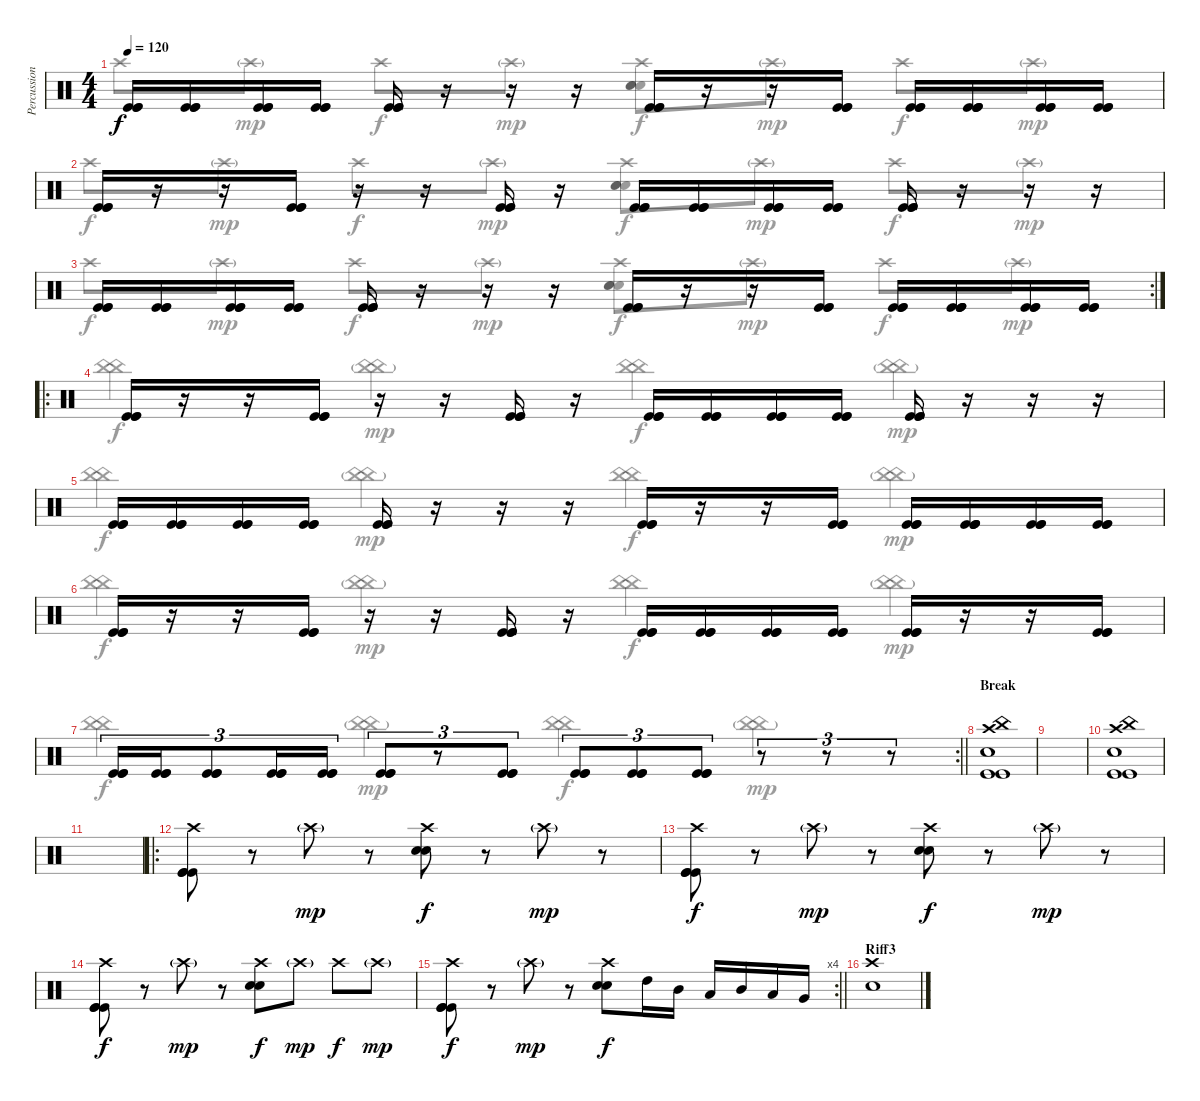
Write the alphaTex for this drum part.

\track ("Percussion" "Percussion") {instrument percussion}
\staff {score}
\articulation defaults
\voice
\ts (4 4)
\tempo 120
\clef neutral
\ks c
("Kick (hit)" "Kick (hit)" "Kick (hit)").16{dy f} ("Kick (hit)" "Kick (hit)" "Kick (hit)").16 ("Kick (hit)" "Kick (hit)" "Kick (hit)").16 ("Kick (hit)" "Kick (hit)" "Kick (hit)").16 ("Kick (hit)" "Kick (hit)" "Kick (hit)").16 r.16 r.16 r.16 ("Kick (hit)" "Kick (hit)" "Kick (hit)").16 r.16 r.16 ("Kick (hit)" "Kick (hit)" "Kick (hit)").16 ("Kick (hit)" "Kick (hit)" "Kick (hit)").16 ("Kick (hit)" "Kick (hit)" "Kick (hit)" "Kick (hit)").16 ("Kick (hit)" "Kick (hit)" "Kick (hit)").16 ("Kick (hit)" "Kick (hit)" "Kick (hit)").16 |
("Kick (hit)" "Kick (hit)" "Kick (hit)").16 r.16 r.16 ("Kick (hit)" "Kick (hit)" "Kick (hit)").16 r.16 r.16 ("Kick (hit)" "Kick (hit)" "Kick (hit)").16 r.16 ("Kick (hit)" "Kick (hit)" "Kick (hit)").16 ("Kick (hit)" "Kick (hit)" "Kick (hit)").16 ("Kick (hit)" "Kick (hit)" "Kick (hit)").16 ("Kick (hit)" "Kick (hit)" "Kick (hit)").16 ("Kick (hit)" "Kick (hit)" "Kick (hit)").16 r.16 r.16 r.16 |
\rc 2
("Kick (hit)" "Kick (hit)" "Kick (hit)").16 ("Kick (hit)" "Kick (hit)" "Kick (hit)").16 ("Kick (hit)" "Kick (hit)" "Kick (hit)").16 ("Kick (hit)" "Kick (hit)" "Kick (hit)").16 ("Kick (hit)" "Kick (hit)" "Kick (hit)").16 r.16 r.16 r.16 ("Kick (hit)" "Kick (hit)" "Kick (hit)").16 r.16 r.16 ("Kick (hit)" "Kick (hit)" "Kick (hit)").16 ("Kick (hit)" "Kick (hit)" "Kick (hit)").16 ("Kick (hit)" "Kick (hit)" "Kick (hit)" "Kick (hit)").16 ("Kick (hit)" "Kick (hit)" "Kick (hit)").16 ("Kick (hit)" "Kick (hit)" "Kick (hit)").16 |
\ro
("Kick (hit)" "Kick (hit)" "Kick (hit)").16 r.16 r.16 ("Kick (hit)" "Kick (hit)" "Kick (hit)").16 r.16 r.16 ("Kick (hit)" "Kick (hit)" "Kick (hit)").16 r.16 ("Kick (hit)" "Kick (hit)" "Kick (hit)").16 ("Kick (hit)" "Kick (hit)" "Kick (hit)").16 ("Kick (hit)" "Kick (hit)" "Kick (hit)").16 ("Kick (hit)" "Kick (hit)" "Kick (hit)").16 ("Kick (hit)" "Kick (hit)" "Kick (hit)").16 r.16 r.16 r.16 |
("Kick (hit)" "Kick (hit)" "Kick (hit)").16 ("Kick (hit)" "Kick (hit)" "Kick (hit)").16 ("Kick (hit)" "Kick (hit)" "Kick (hit)").16 ("Kick (hit)" "Kick (hit)" "Kick (hit)").16 ("Kick (hit)" "Kick (hit)" "Kick (hit)").16 r.16 r.16 r.16 ("Kick (hit)" "Kick (hit)" "Kick (hit)").16 r.16 r.16 ("Kick (hit)" "Kick (hit)" "Kick (hit)").16 ("Kick (hit)" "Kick (hit)" "Kick (hit)").16 ("Kick (hit)" "Kick (hit)" "Kick (hit)" "Kick (hit)").16 ("Kick (hit)" "Kick (hit)" "Kick (hit)").16 ("Kick (hit)" "Kick (hit)" "Kick (hit)").16 |
("Kick (hit)" "Kick (hit)" "Kick (hit)").16 r.16 r.16 ("Kick (hit)" "Kick (hit)" "Kick (hit)").16 r.16 r.16 ("Kick (hit)" "Kick (hit)" "Kick (hit)").16 r.16 ("Kick (hit)" "Kick (hit)" "Kick (hit)").16 ("Kick (hit)" "Kick (hit)" "Kick (hit)").16 ("Kick (hit)" "Kick (hit)" "Kick (hit)").16 ("Kick (hit)" "Kick (hit)" "Kick (hit)").16 ("Kick (hit)" "Kick (hit)" "Kick (hit)").16 r.16 r.16 ("Kick (hit)" "Kick (hit)" "Kick (hit)").16 |
\rc 2
\barLineRight lightlight
("Kick (hit)" "Kick (hit)" "Kick (hit)").16{tu (3 2)} ("Kick (hit)" "Kick (hit)" "Kick (hit)").16{tu (3 2)} ("Kick (hit)" "Kick (hit)" "Kick (hit)").8{tu (3 2)} ("Kick (hit)" "Kick (hit)" "Kick (hit)").16{tu (3 2)} ("Kick (hit)" "Kick (hit)" "Kick (hit)").16{tu (3 2)} ("Kick (hit)" "Kick (hit)" "Kick (hit)").8{tu (3 2)} r.8{tu (3 2)} ("Kick (hit)" "Kick (hit)" "Kick (hit)").8{tu (3 2)} ("Kick (hit)" "Kick (hit)" "Kick (hit)").8{tu (3 2)} ("Kick (hit)" "Kick (hit)" "Kick (hit)").8{tu (3 2)} ("Kick (hit)" "Kick (hit)" "Kick (hit)").8{tu (3 2)} r.8{tu (3 2)} r.8{tu (3 2)} r.8{tu (3 2)} |
\section ("" "Break")
("China (hit)" "Crash high (hit)" "Electric Snare (hit)" "Kick (hit)" "Kick (hit)").1 |
|
("China (hit)" "Crash high (hit)" "Electric Snare (hit)" "Kick (hit)" "Kick (hit)").1 |
|
\ro
("Crash high (hit)" "Kick (hit)" "Kick (hit)" "Kick (hit)").8 r.8 "Crash high (hit)"{g}.8{dy mp} r.8 ("Crash high (hit)" "Electric Snare (hit)" "Electric Snare (hit)").8{dy f} r.8 "Crash high (hit)"{g}.8{dy mp} r.8 |
("Crash high (hit)" "Kick (hit)" "Kick (hit)" "Kick (hit)").8{dy f} r.8 "Crash high (hit)"{g}.8{dy mp} r.8 ("Crash high (hit)" "Electric Snare (hit)" "Electric Snare (hit)").8{dy f} r.8 "Crash high (hit)"{g}.8{dy mp} r.8 |
("Crash high (hit)" "Kick (hit)" "Kick (hit)" "Kick (hit)").8{dy f} r.8 "Crash high (hit)"{g}.8{dy mp} r.8 ("Crash high (hit)" "Electric Snare (hit)" "Electric Snare (hit)").8{dy f} "Crash high (hit)"{g}.8{dy mp} "Crash high (hit)".8{dy f} "Crash high (hit)"{g}.8{dy mp} |
\rc 4
\barLineRight lightlight
("Crash high (hit)" "Kick (hit)" "Kick (hit)" "Kick (hit)").8{dy f} r.8 "Crash high (hit)"{g}.8{dy mp} r.8 ("Crash high (hit)" "Electric Snare (hit)" "Electric Snare (hit)").8{dy f} "High Tom (hit)".16 "Mid Tom (hit)".16 "Low Tom (hit)".16 "Mid Tom (hit)".16 "Low Tom (hit)".16 "Very Low Tom (hit)".16 |
\section ("" "Riff3")
("Crash high (hit)" "Electric Snare (hit)").1
\voice
\clef neutral
\ottava regular
\simile none
\ks c "Crash high (hit)".8{dy f} "Crash high (hit)"{g}.8{dy mp} "Crash high (hit)".8{dy f} "Crash high (hit)"{g}.8{dy mp}
("Crash high (hit)" "Electric Snare (hit)" "Electric Snare (hit)" "Electric Snare (hit)").8{dy f} "Crash high (hit)"{g}.8{dy mp} "Crash high (hit)".8{dy f} "Crash high (hit)"{g}.8{dy mp} |
"Crash high (hit)".8{dy f} "Crash high (hit)"{g}.8{dy mp} "Crash high (hit)".8{dy f} "Crash high (hit)"{g}.8{dy mp} ("Crash high (hit)" "Electric Snare (hit)" "Electric Snare (hit)" "Electric Snare (hit)").8{dy f} "Crash high (hit)"{g}.8{dy mp} "Crash high (hit)".8{dy f} "Crash high (hit)"{g}.8{dy mp} |
"Crash high (hit)".8{dy f} "Crash high (hit)"{g}.8{dy mp} "Crash high (hit)".8{dy f} "Crash high (hit)"{g}.8{dy mp} ("Crash high (hit)" "Electric Snare (hit)" "Electric Snare (hit)" "Electric Snare (hit)").8{dy f} "Crash high (hit)"{g}.8{dy mp} "Crash high (hit)".8{dy f} "Crash high (hit)"{g}.8{dy mp} |
("China (hit)" "China (hit)").4{dy f} ("China (hit)"{g} "China (hit)"{g}).4{dy mp} ("China (hit)" "China (hit)").4{dy f} ("China (hit)"{g} "China (hit)"{g}).4{dy mp} |
("China (hit)" "China (hit)").4{dy f} ("China (hit)"{g} "China (hit)"{g}).4{dy mp} ("China (hit)" "China (hit)").4{dy f} ("China (hit)"{g} "China (hit)"{g}).4{dy mp} |
("China (hit)" "China (hit)").4{dy f} ("China (hit)"{g} "China (hit)"{g}).4{dy mp} ("China (hit)" "China (hit)").4{dy f} ("China (hit)"{g} "China (hit)"{g}).4{dy mp} |
\barLineRight lightlight
("China (hit)" "China (hit)").4{dy f} ("China (hit)"{g} "China (hit)"{g}).4{dy mp} ("China (hit)" "China (hit)").4{dy f} ("China (hit)"{g} "China (hit)"{g}).4{dy mp} |
|
|
|
|
|
|
|
\barLineRight lightlight
|
